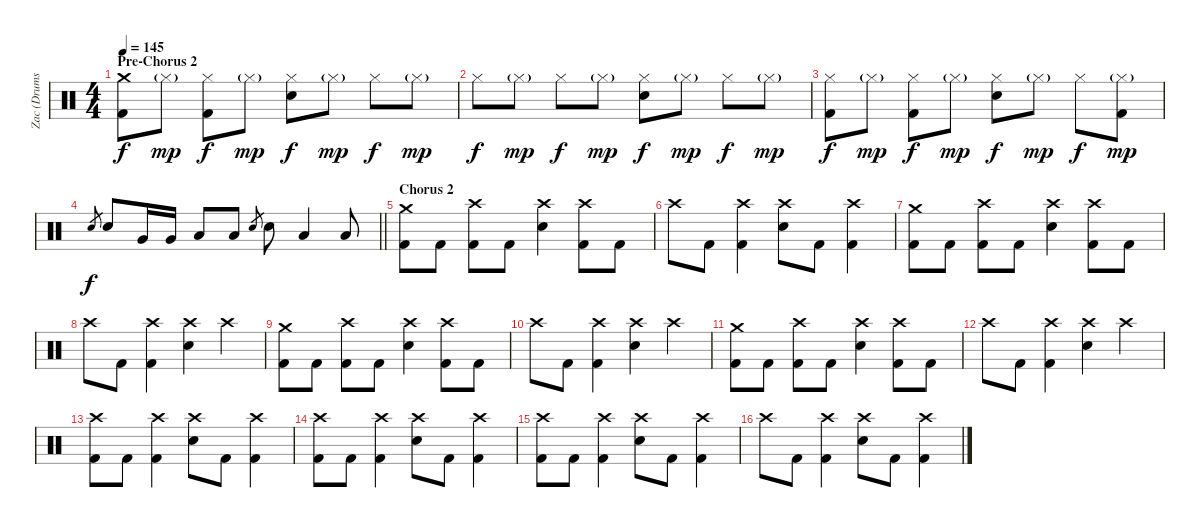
\track ("Zac (Drums)" "Zac (Drums") {instrument percussion}
\staff {score}
\articulation defaults
\ts (4 4)
\section ("" "Pre-Chorus 2")
\tempo 145
\clef neutral
\ks c
("Crash medium (hit)" "Kick (hit) 2").8{dy f} "Hi-Hat (closed)"{g}.8{dy mp} ("Hi-Hat (closed)" "Kick (hit) 2").8{dy f} "Hi-Hat (closed)"{g}.8{dy mp} ("Hi-Hat (closed)" "Electric Snare (hit)").8{dy f} "Hi-Hat (closed)"{g}.8{dy mp} "Hi-Hat (closed)".8{dy f} "Hi-Hat (closed)"{g}.8{dy mp} |
"Hi-Hat (closed)".8{dy f} "Hi-Hat (closed)"{g}.8{dy mp} "Hi-Hat (closed)".8{dy f} "Hi-Hat (closed)"{g}.8{dy mp} ("Hi-Hat (closed)" "Electric Snare (hit)").8{dy f} "Hi-Hat (closed)"{g}.8{dy mp} "Hi-Hat (closed)".8{dy f} "Hi-Hat (closed)"{g}.8{dy mp} |
("Hi-Hat (closed)" "Kick (hit) 2").8{dy f} "Hi-Hat (closed)"{g}.8{dy mp} ("Hi-Hat (closed)" "Kick (hit) 2").8{dy f} "Hi-Hat (closed)"{g}.8{dy mp} ("Hi-Hat (closed)" "Electric Snare (hit)").8{dy f} "Hi-Hat (closed)"{g}.8{dy mp} "Hi-Hat (closed)".8{dy f} ("Hi-Hat (closed)"{g} "Kick (hit) 2").8{dy mp} |
\barLineRight lightlight "Electric Snare (hit)".8{gr dy f} "Electric Snare (hit)".8 "Very Low Tom (hit)".16 "Very Low Tom (hit)".16 "Low Floor Tom (hit)".8 "Low Floor Tom (hit)".8 "Electric Snare (hit)".8{gr} "Electric Snare (hit)".8 "Low Floor Tom (hit)".4 "Low Floor Tom (hit)".8
|
\section ("" "Chorus 2")
("Crash medium (hit)" "Kick (hit) 2").8 "Kick (hit) 2".8 ("Crash high (hit)" "Kick (hit) 2").8 "Kick (hit) 2".8 ("Crash high (hit)" "Electric Snare (hit)").4 ("Crash high (hit)" "Kick (hit) 2").8 "Kick (hit) 2".8 |
"Crash high (hit)".8 "Kick (hit) 2".8 ("Crash high (hit)" "Kick (hit) 2").4 ("Crash high (hit)" "Electric Snare (hit)").8 "Kick (hit) 2".8 ("Crash high (hit)" "Kick (hit) 2").4 |
("Crash medium (hit)" "Kick (hit) 2").8 "Kick (hit) 2".8 ("Crash high (hit)" "Kick (hit) 2").8 "Kick (hit) 2".8 ("Crash high (hit)" "Electric Snare (hit)").4 ("Crash high (hit)" "Kick (hit) 2").8 "Kick (hit) 2".8 |
"Crash high (hit)".8 "Kick (hit) 2".8 ("Crash high (hit)" "Kick (hit) 2").4 ("Crash high (hit)" "Electric Snare (hit)").4 "Crash high (hit)".4 |
("Crash medium (hit)" "Kick (hit) 2").8 "Kick (hit) 2".8 ("Crash high (hit)" "Kick (hit) 2").8 "Kick (hit) 2".8 ("Crash high (hit)" "Electric Snare (hit)").4 ("Crash high (hit)" "Kick (hit) 2").8 "Kick (hit) 2".8 |
"Crash high (hit)".8 "Kick (hit) 2".8 ("Crash high (hit)" "Kick (hit) 2").4 ("Crash high (hit)" "Electric Snare (hit)").4 "Crash high (hit)".4 |
("Crash medium (hit)" "Kick (hit) 2").8 "Kick (hit) 2".8 ("Crash high (hit)" "Kick (hit) 2").8 "Kick (hit) 2".8 ("Crash high (hit)" "Electric Snare (hit)").4 ("Crash high (hit)" "Kick (hit) 2").8 "Kick (hit) 2".8 |
"Crash high (hit)".8 "Kick (hit) 2".8 ("Crash high (hit)" "Kick (hit) 2").4 ("Crash high (hit)" "Electric Snare (hit)").4 "Crash high (hit)".4 |
("Crash high (hit)" "Kick (hit) 2").8 "Kick (hit) 2".8 ("Crash high (hit)" "Kick (hit) 2").4 ("Crash high (hit)" "Electric Snare (hit)").8 "Kick (hit) 2".8 ("Crash high (hit)" "Kick (hit) 2").4 |
("Crash high (hit)" "Kick (hit) 2").8 "Kick (hit) 2".8 ("Crash high (hit)" "Kick (hit) 2").4 ("Crash high (hit)" "Electric Snare (hit)").8 "Kick (hit) 2".8 ("Crash high (hit)" "Kick (hit) 2").4 |
("Crash high (hit)" "Kick (hit) 2").8 "Kick (hit) 2".8 ("Crash high (hit)" "Kick (hit) 2").4 ("Crash high (hit)" "Electric Snare (hit)").8 "Kick (hit) 2".8 ("Crash high (hit)" "Kick (hit) 2").4 |
"Crash high (hit)".8 "Kick (hit) 2".8 ("Crash high (hit)" "Kick (hit) 2").4 ("Crash high (hit)" "Electric Snare (hit)").8 "Kick (hit) 2".8 ("Crash high (hit)" "Kick (hit) 2").4
